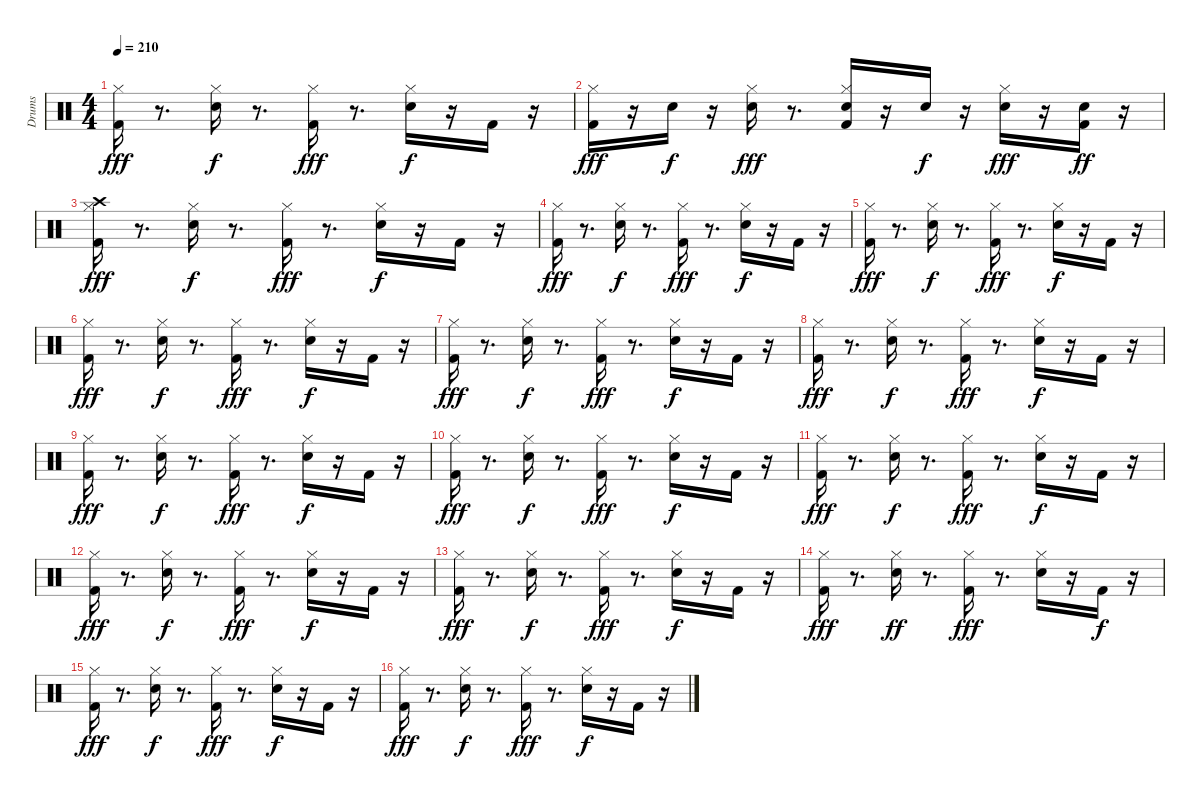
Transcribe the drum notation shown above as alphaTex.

\track ("Drums " "Drums ") {instrument percussion}
\staff {score}
\articulation defaults
\ts (4 4)
\tempo 210
\clef neutral
\ks c
("Kick (hit) 2" "Hi-Hat (closed)").16{dy fff} r.8{d} ("Snare (hit) 2" "Hi-Hat (closed)").16{dy f} r.8{d} ("Kick (hit) 2" "Hi-Hat (closed)").16{dy fff} r.8{d} ("Snare (hit) 2" "Hi-Hat (closed)").16{dy f} r.16 "Kick (hit) 2".16 r.16 |
("Kick (hit) 2" "Hi-Hat (closed)").16{dy fff} r.16 "Snare (hit) 2".16{dy f} r.16 ("Snare (hit) 2" "Hi-Hat (closed)").16{dy fff} r.8{d} ("Kick (hit) 2" "Snare (hit) 2" "Hi-Hat (closed)").16 r.16 "Snare (hit) 2".16{dy f} r.16 ("Snare (hit) 2" "Hi-Hat (closed)").16{dy fff} r.16 ("Kick (hit) 2" "Snare (hit) 2").16{dy ff} r.16 |
("Kick (hit) 2" "Hi-Hat (closed)" "Crash high (hit)").16{dy fff} r.8{d} ("Snare (hit) 2" "Hi-Hat (closed)").16{dy f} r.8{d} ("Kick (hit) 2" "Hi-Hat (closed)").16{dy fff} r.8{d} ("Snare (hit) 2" "Hi-Hat (closed)").16{dy f} r.16 "Kick (hit) 2".16 r.16 |
("Kick (hit) 2" "Hi-Hat (closed)").16{dy fff} r.8{d} ("Snare (hit) 2" "Hi-Hat (closed)").16{dy f} r.8{d} ("Kick (hit) 2" "Hi-Hat (closed)").16{dy fff} r.8{d} ("Snare (hit) 2" "Hi-Hat (closed)").16{dy f} r.16 "Kick (hit) 2".16 r.16 |
("Kick (hit) 2" "Hi-Hat (closed)").16{dy fff} r.8{d} ("Snare (hit) 2" "Hi-Hat (closed)").16{dy f} r.8{d} ("Kick (hit) 2" "Hi-Hat (closed)").16{dy fff} r.8{d} ("Snare (hit) 2" "Hi-Hat (closed)").16{dy f} r.16 "Kick (hit) 2".16 r.16 |
("Kick (hit) 2" "Hi-Hat (closed)").16{dy fff} r.8{d} ("Snare (hit) 2" "Hi-Hat (closed)").16{dy f} r.8{d} ("Kick (hit) 2" "Hi-Hat (closed)").16{dy fff} r.8{d} ("Snare (hit) 2" "Hi-Hat (closed)").16{dy f} r.16 "Kick (hit) 2".16 r.16 |
("Kick (hit) 2" "Hi-Hat (closed)").16{dy fff} r.8{d} ("Snare (hit) 2" "Hi-Hat (closed)").16{dy f} r.8{d} ("Kick (hit) 2" "Hi-Hat (closed)").16{dy fff} r.8{d} ("Snare (hit) 2" "Hi-Hat (closed)").16{dy f} r.16 "Kick (hit) 2".16 r.16 |
("Kick (hit) 2" "Hi-Hat (closed)").16{dy fff} r.8{d} ("Snare (hit) 2" "Hi-Hat (closed)").16{dy f} r.8{d} ("Kick (hit) 2" "Hi-Hat (closed)").16{dy fff} r.8{d} ("Snare (hit) 2" "Hi-Hat (closed)").16{dy f} r.16 "Kick (hit) 2".16 r.16 |
("Kick (hit) 2" "Hi-Hat (closed)").16{dy fff} r.8{d} ("Snare (hit) 2" "Hi-Hat (closed)").16{dy f} r.8{d} ("Kick (hit) 2" "Hi-Hat (closed)").16{dy fff} r.8{d} ("Snare (hit) 2" "Hi-Hat (closed)").16{dy f} r.16 "Kick (hit) 2".16 r.16 |
("Kick (hit) 2" "Hi-Hat (closed)").16{dy fff} r.8{d} ("Snare (hit) 2" "Hi-Hat (closed)").16{dy f} r.8{d} ("Kick (hit) 2" "Hi-Hat (closed)").16{dy fff} r.8{d} ("Snare (hit) 2" "Hi-Hat (closed)").16{dy f} r.16 "Kick (hit) 2".16 r.16 |
("Kick (hit) 2" "Hi-Hat (closed)").16{dy fff} r.8{d} ("Snare (hit) 2" "Hi-Hat (closed)").16{dy f} r.8{d} ("Kick (hit) 2" "Hi-Hat (closed)").16{dy fff} r.8{d} ("Snare (hit) 2" "Hi-Hat (closed)").16{dy f} r.16 "Kick (hit) 2".16 r.16 |
("Kick (hit) 2" "Hi-Hat (closed)").16{dy fff} r.8{d} ("Snare (hit) 2" "Hi-Hat (closed)").16{dy f} r.8{d} ("Kick (hit) 2" "Hi-Hat (closed)").16{dy fff} r.8{d} ("Snare (hit) 2" "Hi-Hat (closed)").16{dy f} r.16 "Kick (hit) 2".16 r.16 |
("Kick (hit) 2" "Hi-Hat (closed)").16{dy fff} r.8{d} ("Snare (hit) 2" "Hi-Hat (closed)").16{dy f} r.8{d} ("Kick (hit) 2" "Hi-Hat (closed)").16{dy fff} r.8{d} ("Snare (hit) 2" "Hi-Hat (closed)").16{dy f} r.16 "Kick (hit) 2".16 r.16 |
("Kick (hit) 2" "Hi-Hat (closed)").16{dy fff} r.8{d} ("Snare (hit) 2" "Hi-Hat (closed)").16{dy ff} r.8{d} ("Kick (hit) 2" "Hi-Hat (closed)").16{dy fff} r.8{d} ("Snare (hit) 2" "Hi-Hat (closed)").16 r.16 "Kick (hit) 2".16{dy f} r.16 |
("Kick (hit) 2" "Hi-Hat (closed)").16{dy fff} r.8{d} ("Snare (hit) 2" "Hi-Hat (closed)").16{dy f} r.8{d} ("Kick (hit) 2" "Hi-Hat (closed)").16{dy fff} r.8{d} ("Snare (hit) 2" "Hi-Hat (closed)").16{dy f} r.16 "Kick (hit) 2".16 r.16 |
("Kick (hit) 2" "Hi-Hat (closed)").16{dy fff} r.8{d} ("Snare (hit) 2" "Hi-Hat (closed)").16{dy f} r.8{d} ("Kick (hit) 2" "Hi-Hat (closed)").16{dy fff} r.8{d} ("Snare (hit) 2" "Hi-Hat (closed)").16{dy f} r.16 "Kick (hit) 2".16 r.16
